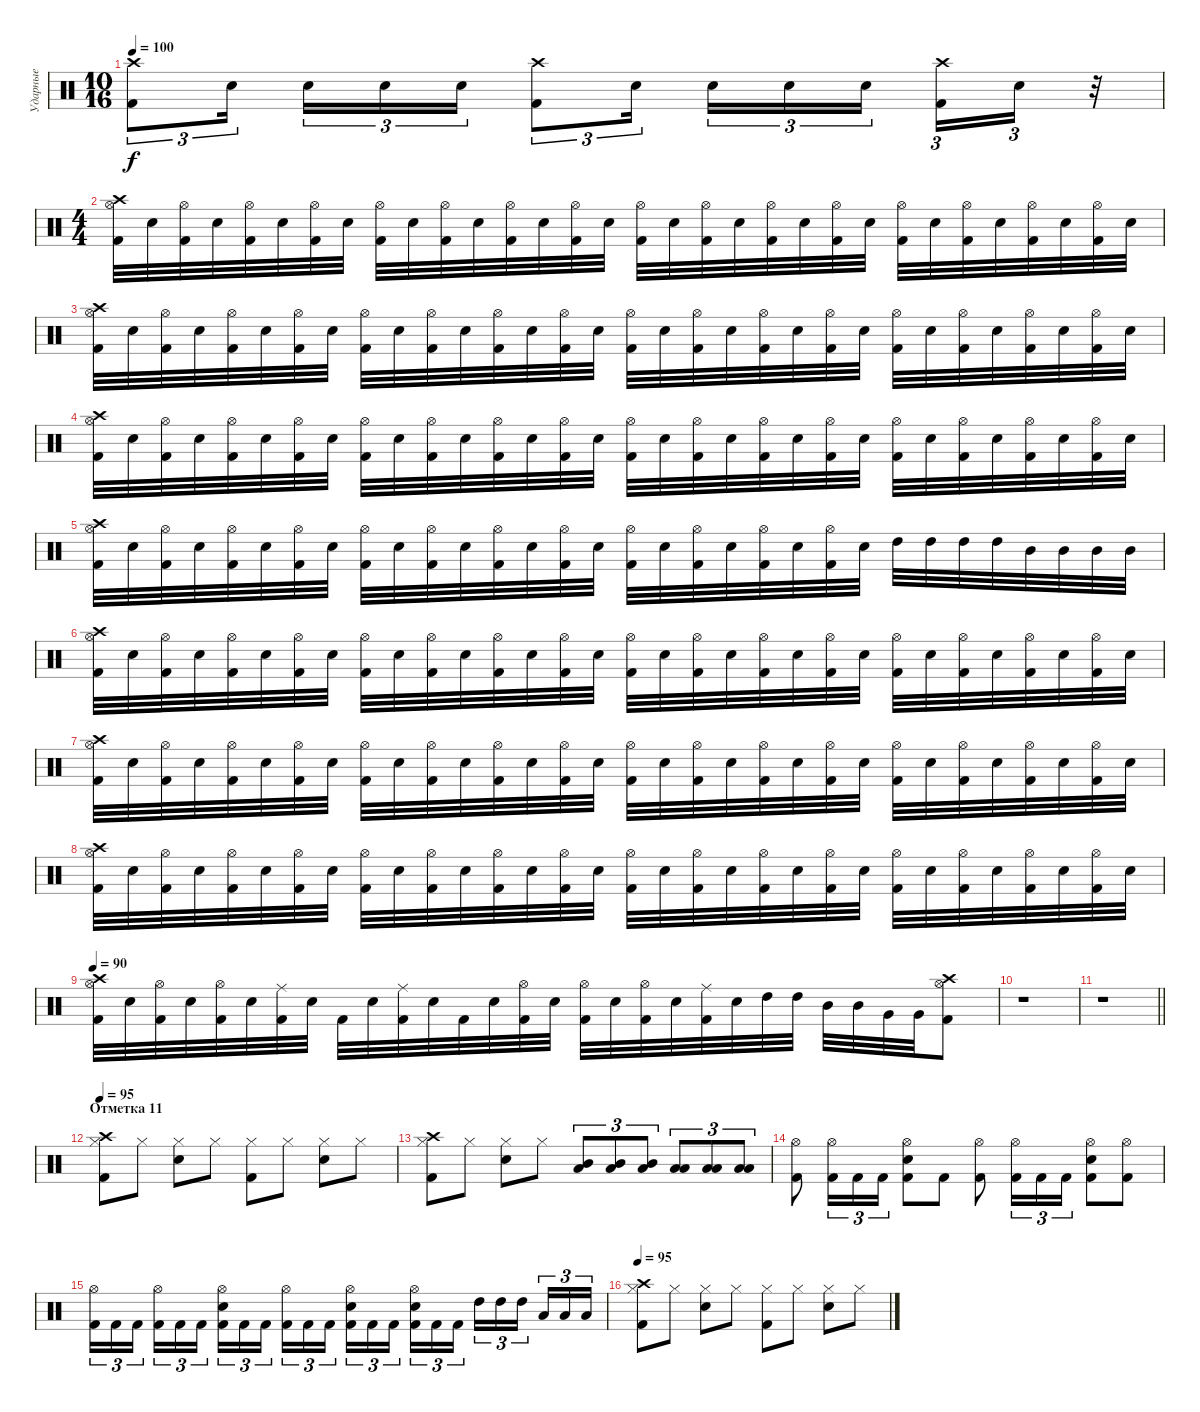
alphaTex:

\track ("Ударные" "Ударные") {instrument percussion}
\staff {score}
\articulation defaults
\ts (10 16)
\tempo 100
\clef neutral
\ks c
("Crash high (hit)" "Kick (hit) 2").8{tu (3 2) dy f} "Electric Snare (hit)".16{tu (3 2)} "Electric Snare (hit)".16{tu (3 2)} "Electric Snare (hit)".16{tu (3 2)} "Electric Snare (hit)".16{tu (3 2)} ("Crash high (hit)" "Kick (hit) 2").8{tu (3 2)} "Electric Snare (hit)".16{tu (3 2)} "Electric Snare (hit)".16{tu (3 2)} "Electric Snare (hit)".16{tu (3 2)} "Electric Snare (hit)".16{tu (3 2)} ("Crash high (hit)" "Kick (hit) 2").16{tu (3 2)} "Electric Snare (hit)".16{tu (3 2)} r.32 |
\ts (4 4)
("Kick (hit) 2" "Crash high (hit)" "Hi-Hat (open)").32 "Electric Snare (hit)".32 ("Kick (hit) 2" "Hi-Hat (open)").32 "Electric Snare (hit)".32 ("Kick (hit) 2" "Hi-Hat (open)").32 "Electric Snare (hit)".32 ("Kick (hit) 2" "Hi-Hat (open)").32 "Electric Snare (hit)".32 ("Kick (hit) 2" "Hi-Hat (open)").32 "Electric Snare (hit)".32 ("Kick (hit) 2" "Hi-Hat (open)").32 "Electric Snare (hit)".32 ("Kick (hit) 2" "Hi-Hat (open)").32 "Electric Snare (hit)".32 ("Kick (hit) 2" "Hi-Hat (open)").32 "Electric Snare (hit)".32 ("Kick (hit) 2" "Hi-Hat (open)").32 "Electric Snare (hit)".32 ("Kick (hit) 2" "Hi-Hat (open)").32 "Electric Snare (hit)".32 ("Kick (hit) 2" "Hi-Hat (open)").32 "Electric Snare (hit)".32 ("Kick (hit) 2" "Hi-Hat (open)").32 "Electric Snare (hit)".32 ("Kick (hit) 2" "Hi-Hat (open)").32 "Electric Snare (hit)".32 ("Kick (hit) 2" "Hi-Hat (open)").32 "Electric Snare (hit)".32 ("Kick (hit) 2" "Hi-Hat (open)").32 "Electric Snare (hit)".32 ("Kick (hit) 2" "Hi-Hat (open)").32 "Electric Snare (hit)".32 |
("Kick (hit) 2" "Crash high (hit)" "Hi-Hat (open)").32 "Electric Snare (hit)".32 ("Kick (hit) 2" "Hi-Hat (open)").32 "Electric Snare (hit)".32 ("Kick (hit) 2" "Hi-Hat (open)").32 "Electric Snare (hit)".32 ("Kick (hit) 2" "Hi-Hat (open)").32 "Electric Snare (hit)".32 ("Kick (hit) 2" "Hi-Hat (open)").32 "Electric Snare (hit)".32 ("Kick (hit) 2" "Hi-Hat (open)").32 "Electric Snare (hit)".32 ("Kick (hit) 2" "Hi-Hat (open)").32 "Electric Snare (hit)".32 ("Kick (hit) 2" "Hi-Hat (open)").32 "Electric Snare (hit)".32 ("Kick (hit) 2" "Hi-Hat (open)").32 "Electric Snare (hit)".32 ("Kick (hit) 2" "Hi-Hat (open)").32 "Electric Snare (hit)".32 ("Kick (hit) 2" "Hi-Hat (open)").32 "Electric Snare (hit)".32 ("Kick (hit) 2" "Hi-Hat (open)").32 "Electric Snare (hit)".32 ("Kick (hit) 2" "Hi-Hat (open)").32 "Electric Snare (hit)".32 ("Kick (hit) 2" "Hi-Hat (open)").32 "Electric Snare (hit)".32 ("Kick (hit) 2" "Hi-Hat (open)").32 "Electric Snare (hit)".32 ("Kick (hit) 2" "Hi-Hat (open)").32 "Electric Snare (hit)".32 |
("Kick (hit) 2" "Crash high (hit)" "Hi-Hat (open)").32 "Electric Snare (hit)".32 ("Kick (hit) 2" "Hi-Hat (open)").32 "Electric Snare (hit)".32 ("Kick (hit) 2" "Hi-Hat (open)").32 "Electric Snare (hit)".32 ("Kick (hit) 2" "Hi-Hat (open)").32 "Electric Snare (hit)".32 ("Kick (hit) 2" "Hi-Hat (open)").32 "Electric Snare (hit)".32 ("Kick (hit) 2" "Hi-Hat (open)").32 "Electric Snare (hit)".32 ("Kick (hit) 2" "Hi-Hat (open)").32 "Electric Snare (hit)".32 ("Kick (hit) 2" "Hi-Hat (open)").32 "Electric Snare (hit)".32 ("Kick (hit) 2" "Hi-Hat (open)").32 "Electric Snare (hit)".32 ("Kick (hit) 2" "Hi-Hat (open)").32 "Electric Snare (hit)".32 ("Kick (hit) 2" "Hi-Hat (open)").32 "Electric Snare (hit)".32 ("Kick (hit) 2" "Hi-Hat (open)").32 "Electric Snare (hit)".32 ("Kick (hit) 2" "Hi-Hat (open)").32 "Electric Snare (hit)".32 ("Kick (hit) 2" "Hi-Hat (open)").32 "Electric Snare (hit)".32 ("Kick (hit) 2" "Hi-Hat (open)").32 "Electric Snare (hit)".32 ("Kick (hit) 2" "Hi-Hat (open)").32 "Electric Snare (hit)".32 |
("Kick (hit) 2" "Crash high (hit)" "Hi-Hat (open)").32 "Electric Snare (hit)".32 ("Kick (hit) 2" "Hi-Hat (open)").32 "Electric Snare (hit)".32 ("Kick (hit) 2" "Hi-Hat (open)").32 "Electric Snare (hit)".32 ("Kick (hit) 2" "Hi-Hat (open)").32 "Electric Snare (hit)".32 ("Kick (hit) 2" "Hi-Hat (open)").32 "Electric Snare (hit)".32 ("Kick (hit) 2" "Hi-Hat (open)").32 "Electric Snare (hit)".32 ("Kick (hit) 2" "Hi-Hat (open)").32 "Electric Snare (hit)".32 ("Kick (hit) 2" "Hi-Hat (open)").32 "Electric Snare (hit)".32 ("Kick (hit) 2" "Hi-Hat (open)").32 "Electric Snare (hit)".32 ("Kick (hit) 2" "Hi-Hat (open)").32 "Electric Snare (hit)".32 ("Kick (hit) 2" "Hi-Hat (open)").32 "Electric Snare (hit)".32 ("Kick (hit) 2" "Hi-Hat (open)").32 "Electric Snare (hit)".32 "High Tom (hit)".32 "High Tom (hit)".32 "High Tom (hit)".32 "High Tom (hit)".32 "Mid Tom (hit)".32 "Mid Tom (hit)".32 "Mid Tom (hit)".32 "Mid Tom (hit)".32 |
("Kick (hit) 2" "Crash high (hit)" "Hi-Hat (open)").32 "Electric Snare (hit)".32 ("Kick (hit) 2" "Hi-Hat (open)").32 "Electric Snare (hit)".32 ("Kick (hit) 2" "Hi-Hat (open)").32 "Electric Snare (hit)".32 ("Kick (hit) 2" "Hi-Hat (open)").32 "Electric Snare (hit)".32 ("Kick (hit) 2" "Hi-Hat (open)").32 "Electric Snare (hit)".32 ("Kick (hit) 2" "Hi-Hat (open)").32 "Electric Snare (hit)".32 ("Kick (hit) 2" "Hi-Hat (open)").32 "Electric Snare (hit)".32 ("Kick (hit) 2" "Hi-Hat (open)").32 "Electric Snare (hit)".32 ("Kick (hit) 2" "Hi-Hat (open)").32 "Electric Snare (hit)".32 ("Kick (hit) 2" "Hi-Hat (open)").32 "Electric Snare (hit)".32 ("Kick (hit) 2" "Hi-Hat (open)").32 "Electric Snare (hit)".32 ("Kick (hit) 2" "Hi-Hat (open)").32 "Electric Snare (hit)".32 ("Kick (hit) 2" "Hi-Hat (open)").32 "Electric Snare (hit)".32 ("Kick (hit) 2" "Hi-Hat (open)").32 "Electric Snare (hit)".32 ("Kick (hit) 2" "Hi-Hat (open)").32 "Electric Snare (hit)".32 ("Kick (hit) 2" "Hi-Hat (open)").32 "Electric Snare (hit)".32 |
("Kick (hit) 2" "Crash high (hit)" "Hi-Hat (open)").32 "Electric Snare (hit)".32 ("Kick (hit) 2" "Hi-Hat (open)").32 "Electric Snare (hit)".32 ("Kick (hit) 2" "Hi-Hat (open)").32 "Electric Snare (hit)".32 ("Kick (hit) 2" "Hi-Hat (open)").32 "Electric Snare (hit)".32 ("Kick (hit) 2" "Hi-Hat (open)").32 "Electric Snare (hit)".32 ("Kick (hit) 2" "Hi-Hat (open)").32 "Electric Snare (hit)".32 ("Kick (hit) 2" "Hi-Hat (open)").32 "Electric Snare (hit)".32 ("Kick (hit) 2" "Hi-Hat (open)").32 "Electric Snare (hit)".32 ("Kick (hit) 2" "Hi-Hat (open)").32 "Electric Snare (hit)".32 ("Kick (hit) 2" "Hi-Hat (open)").32 "Electric Snare (hit)".32 ("Kick (hit) 2" "Hi-Hat (open)").32 "Electric Snare (hit)".32 ("Kick (hit) 2" "Hi-Hat (open)").32 "Electric Snare (hit)".32 ("Kick (hit) 2" "Hi-Hat (open)").32 "Electric Snare (hit)".32 ("Kick (hit) 2" "Hi-Hat (open)").32 "Electric Snare (hit)".32 ("Kick (hit) 2" "Hi-Hat (open)").32 "Electric Snare (hit)".32 ("Kick (hit) 2" "Hi-Hat (open)").32 "Electric Snare (hit)".32 |
("Kick (hit) 2" "Crash high (hit)" "Hi-Hat (open)").32 "Electric Snare (hit)".32 ("Kick (hit) 2" "Hi-Hat (open)").32 "Electric Snare (hit)".32 ("Kick (hit) 2" "Hi-Hat (open)").32 "Electric Snare (hit)".32 ("Kick (hit) 2" "Hi-Hat (open)").32 "Electric Snare (hit)".32 ("Kick (hit) 2" "Hi-Hat (open)").32 "Electric Snare (hit)".32 ("Kick (hit) 2" "Hi-Hat (open)").32 "Electric Snare (hit)".32 ("Kick (hit) 2" "Hi-Hat (open)").32 "Electric Snare (hit)".32 ("Kick (hit) 2" "Hi-Hat (open)").32 "Electric Snare (hit)".32 ("Kick (hit) 2" "Hi-Hat (open)").32 "Electric Snare (hit)".32 ("Kick (hit) 2" "Hi-Hat (open)").32 "Electric Snare (hit)".32 ("Kick (hit) 2" "Hi-Hat (open)").32 "Electric Snare (hit)".32 ("Kick (hit) 2" "Hi-Hat (open)").32 "Electric Snare (hit)".32 ("Kick (hit) 2" "Hi-Hat (open)").32 "Electric Snare (hit)".32 ("Kick (hit) 2" "Hi-Hat (open)").32 "Electric Snare (hit)".32 ("Kick (hit) 2" "Hi-Hat (open)").32 "Electric Snare (hit)".32 ("Kick (hit) 2" "Hi-Hat (open)").32 "Electric Snare (hit)".32 |
\tempo 90
("Kick (hit) 2" "Crash high (hit)" "Hi-Hat (open)").32 "Electric Snare (hit)".32 ("Kick (hit) 2" "Hi-Hat (open)").32 "Electric Snare (hit)".32 ("Kick (hit) 2" "Hi-Hat (open)").32 "Electric Snare (hit)".32 ("Kick (hit) 2" "Ride (middle)").32 "Electric Snare (hit)".32 "Kick (hit) 2".32 "Electric Snare (hit)".32 ("Kick (hit) 2" "Ride (middle)").32 "Electric Snare (hit)".32 "Kick (hit) 2".32 "Electric Snare (hit)".32 ("Kick (hit) 2" "Hi-Hat (open)").32 "Electric Snare (hit)".32 ("Kick (hit) 2" "Hi-Hat (open)").32 "Electric Snare (hit)".32 ("Kick (hit) 2" "Hi-Hat (open)").32 "Electric Snare (hit)".32 ("Kick (hit) 2" "Ride (middle)").32 "Electric Snare (hit)".32 "High Tom (hit)".32 "High Tom (hit)".32 "Mid Tom (hit)".32 "Mid Tom (hit)".32 "Very Low Tom (hit)".32 "Very Low Tom (hit)".32 ("Kick (hit) 2" "Crash high (hit)" "Hi-Hat (open)").8 |
r.1 |
\barLineRight lightlight
r.1 |
\section ("" "Отметка 11")
\tempo 95
("Kick (hit) 2" "Hi-Hat (closed)" "Crash high (hit)").8 "Hi-Hat (closed)".8 ("Electric Snare (hit)" "Hi-Hat (closed)").8 "Hi-Hat (closed)".8 ("Kick (hit) 2" "Hi-Hat (closed)").8 "Hi-Hat (closed)".8 ("Electric Snare (hit)" "Hi-Hat (closed)").8 "Hi-Hat (closed)".8 |
("Kick (hit) 2" "Hi-Hat (closed)" "Crash high (hit)").8 "Hi-Hat (closed)".8 ("Electric Snare (hit)" "Hi-Hat (closed)").8 "Hi-Hat (closed)".8 ("Mid Tom (hit)" "Low Tom (hit)").8{tu (3 2)} ("Mid Tom (hit)" "Low Tom (hit)").8{tu (3 2)} ("Mid Tom (hit)" "Low Tom (hit)").8{tu (3 2)} ("Low Floor Tom (hit)" "Low Tom (hit)").8{tu (3 2)} ("Low Floor Tom (hit)" "Low Tom (hit)").8{tu (3 2)} ("Low Floor Tom (hit)" "Low Tom (hit)").8{tu (3 2)} |
("Kick (hit) 2" "Hi-Hat (open)").8 ("Kick (hit) 2" "Hi-Hat (open)").16{tu (3 2)} "Kick (hit) 2".16{tu (3 2)} "Kick (hit) 2".16{tu (3 2)} ("Kick (hit) 2" "Electric Snare (hit)" "Hi-Hat (open)").8 "Kick (hit) 2".8 ("Kick (hit) 2" "Hi-Hat (open)").8 ("Kick (hit) 2" "Hi-Hat (open)").16{tu (3 2)} "Kick (hit) 2".16{tu (3 2)} "Kick (hit) 2".16{tu (3 2)} ("Kick (hit) 2" "Electric Snare (hit)" "Hi-Hat (open)").8 ("Kick (hit) 2" "Hi-Hat (open)").8 |
("Kick (hit) 2" "Hi-Hat (open)").16{tu (3 2)} "Kick (hit) 2".16{tu (3 2)} "Kick (hit) 2".16{tu (3 2) beam splitsecondary} ("Kick (hit) 2" "Hi-Hat (open)").16{tu (3 2)} "Kick (hit) 2".16{tu (3 2)} "Kick (hit) 2".16{tu (3 2)} ("Kick (hit) 2" "Electric Snare (hit)" "Hi-Hat (open)").16{tu (3 2)} "Kick (hit) 2".16{tu (3 2)} "Kick (hit) 2".16{tu (3 2) beam splitsecondary} ("Kick (hit) 2" "Hi-Hat (open)").16{tu (3 2)} "Kick (hit) 2".16{tu (3 2)} "Kick (hit) 2".16{tu (3 2)} ("Kick (hit) 2" "Electric Snare (hit)" "Hi-Hat (open)").16{tu (3 2)} "Kick (hit) 2".16{tu (3 2)} "Kick (hit) 2".16{tu (3 2) beam splitsecondary} ("Kick (hit) 2" "Electric Snare (hit)" "Hi-Hat (open)").16{tu (3 2)} "Kick (hit) 2".16{tu (3 2)} "Kick (hit) 2".16{tu (3 2)} "High Tom (hit)".16{tu (3 2)} "High Tom (hit)".16{tu (3 2)} "High Tom (hit)".16{tu (3 2) beam splitsecondary} "Low Tom (hit)".16{tu (3 2)} "Low Tom (hit)".16{tu (3 2)} "Low Tom (hit)".16{tu (3 2)} |
\tempo 95
("Kick (hit) 2" "Hi-Hat (closed)" "Crash high (hit)").8 "Hi-Hat (closed)".8 ("Electric Snare (hit)" "Hi-Hat (closed)").8 "Hi-Hat (closed)".8 ("Kick (hit) 2" "Hi-Hat (closed)").8 "Hi-Hat (closed)".8 ("Electric Snare (hit)" "Hi-Hat (closed)").8 "Hi-Hat (closed)".8
